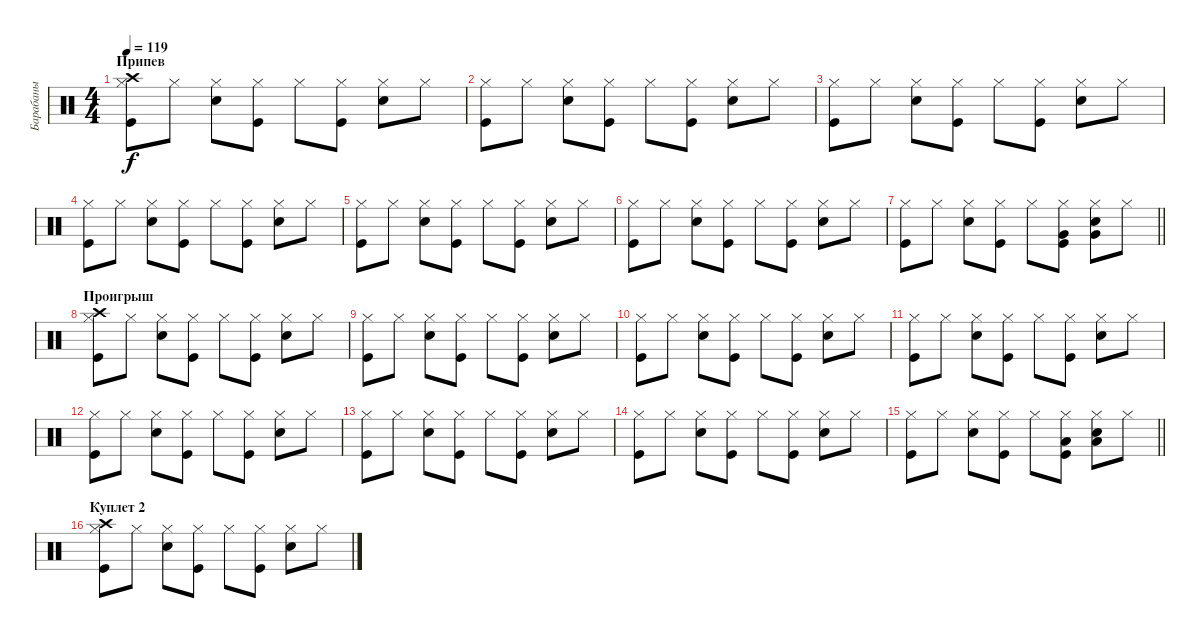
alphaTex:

\track ("Барабаны" "Барабаны") {instrument percussion}
\staff {score}
\articulation defaults
\ts (4 4)
\section ("" "Припев")
\tempo 119
\clef neutral
\ks c
("Kick (hit)" "Hi-Hat (closed)" "Crash high (hit)").8{dy f} "Hi-Hat (closed)".8 ("Snare (hit) 2" "Hi-Hat (closed)").8 ("Kick (hit)" "Hi-Hat (closed)").8 "Hi-Hat (closed)".8 ("Kick (hit)" "Hi-Hat (closed)").8 ("Snare (hit) 2" "Hi-Hat (closed)").8 "Hi-Hat (closed)".8 |
("Kick (hit)" "Hi-Hat (closed)").8 "Hi-Hat (closed)".8 ("Snare (hit) 2" "Hi-Hat (closed)").8 ("Kick (hit)" "Hi-Hat (closed)").8 "Hi-Hat (closed)".8 ("Kick (hit)" "Hi-Hat (closed)").8 ("Snare (hit) 2" "Hi-Hat (closed)").8 "Hi-Hat (closed)".8 |
("Kick (hit)" "Hi-Hat (closed)").8 "Hi-Hat (closed)".8 ("Snare (hit) 2" "Hi-Hat (closed)").8 ("Kick (hit)" "Hi-Hat (closed)").8 "Hi-Hat (closed)".8 ("Kick (hit)" "Hi-Hat (closed)").8 ("Snare (hit) 2" "Hi-Hat (closed)").8 "Hi-Hat (closed)".8 |
("Kick (hit)" "Hi-Hat (closed)").8 "Hi-Hat (closed)".8 ("Snare (hit) 2" "Hi-Hat (closed)").8 ("Kick (hit)" "Hi-Hat (closed)").8 "Hi-Hat (closed)".8 ("Kick (hit)" "Hi-Hat (closed)").8 ("Snare (hit) 2" "Hi-Hat (closed)").8 "Hi-Hat (closed)".8 |
("Kick (hit)" "Hi-Hat (closed)").8 "Hi-Hat (closed)".8 ("Snare (hit) 2" "Hi-Hat (closed)").8 ("Kick (hit)" "Hi-Hat (closed)").8 "Hi-Hat (closed)".8 ("Kick (hit)" "Hi-Hat (closed)").8 ("Snare (hit) 2" "Hi-Hat (closed)").8 "Hi-Hat (closed)".8 |
("Kick (hit)" "Hi-Hat (closed)").8 "Hi-Hat (closed)".8 ("Snare (hit) 2" "Hi-Hat (closed)").8 ("Kick (hit)" "Hi-Hat (closed)").8 "Hi-Hat (closed)".8 ("Kick (hit)" "Hi-Hat (closed)").8 ("Snare (hit) 2" "Hi-Hat (closed)").8 "Hi-Hat (closed)".8 |
\barLineRight lightlight
("Kick (hit)" "Hi-Hat (closed)").8 "Hi-Hat (closed)".8 ("Snare (hit) 2" "Hi-Hat (closed)").8 ("Kick (hit)" "Hi-Hat (closed)").8 "Hi-Hat (closed)".8 ("Kick (hit)" "Hi-Hat (closed)" "Very Low Tom (hit)").8 ("Snare (hit) 2" "Hi-Hat (closed)" "Very Low Tom (hit)").8 "Hi-Hat (closed)".8 |
\section ("" "Проигрыш")
("Kick (hit)" "Hi-Hat (closed)" "Crash high (hit)").8 "Hi-Hat (closed)".8 ("Snare (hit) 2" "Hi-Hat (closed)").8 ("Kick (hit)" "Hi-Hat (closed)").8 "Hi-Hat (closed)".8 ("Kick (hit)" "Hi-Hat (closed)").8 ("Snare (hit) 2" "Hi-Hat (closed)").8 "Hi-Hat (closed)".8 |
("Kick (hit)" "Hi-Hat (closed)").8 "Hi-Hat (closed)".8 ("Snare (hit) 2" "Hi-Hat (closed)").8 ("Kick (hit)" "Hi-Hat (closed)").8 "Hi-Hat (closed)".8 ("Kick (hit)" "Hi-Hat (closed)").8 ("Snare (hit) 2" "Hi-Hat (closed)").8 "Hi-Hat (closed)".8 |
("Kick (hit)" "Hi-Hat (closed)").8 "Hi-Hat (closed)".8 ("Snare (hit) 2" "Hi-Hat (closed)").8 ("Kick (hit)" "Hi-Hat (closed)").8 "Hi-Hat (closed)".8 ("Kick (hit)" "Hi-Hat (closed)").8 ("Snare (hit) 2" "Hi-Hat (closed)").8 "Hi-Hat (closed)".8 |
("Kick (hit)" "Hi-Hat (closed)").8 "Hi-Hat (closed)".8 ("Snare (hit) 2" "Hi-Hat (closed)").8 ("Kick (hit)" "Hi-Hat (closed)").8 "Hi-Hat (closed)".8 ("Kick (hit)" "Hi-Hat (closed)").8 ("Snare (hit) 2" "Hi-Hat (closed)").8 "Hi-Hat (closed)".8 |
("Kick (hit)" "Hi-Hat (closed)").8 "Hi-Hat (closed)".8 ("Snare (hit) 2" "Hi-Hat (closed)").8 ("Kick (hit)" "Hi-Hat (closed)").8 "Hi-Hat (closed)".8 ("Kick (hit)" "Hi-Hat (closed)").8 ("Snare (hit) 2" "Hi-Hat (closed)").8 "Hi-Hat (closed)".8 |
("Kick (hit)" "Hi-Hat (closed)").8 "Hi-Hat (closed)".8 ("Snare (hit) 2" "Hi-Hat (closed)").8 ("Kick (hit)" "Hi-Hat (closed)").8 "Hi-Hat (closed)".8 ("Kick (hit)" "Hi-Hat (closed)").8 ("Snare (hit) 2" "Hi-Hat (closed)").8 "Hi-Hat (closed)".8 |
("Kick (hit)" "Hi-Hat (closed)").8 "Hi-Hat (closed)".8 ("Snare (hit) 2" "Hi-Hat (closed)").8 ("Kick (hit)" "Hi-Hat (closed)").8 "Hi-Hat (closed)".8 ("Kick (hit)" "Hi-Hat (closed)").8 ("Snare (hit) 2" "Hi-Hat (closed)").8 "Hi-Hat (closed)".8 |
\barLineRight lightlight
("Kick (hit)" "Hi-Hat (closed)").8 "Hi-Hat (closed)".8 ("Snare (hit) 2" "Hi-Hat (closed)").8 ("Kick (hit)" "Hi-Hat (closed)").8 "Hi-Hat (closed)".8 ("Kick (hit)" "Hi-Hat (closed)" "Low Tom (hit)").8 ("Snare (hit) 2" "Hi-Hat (closed)" "Low Tom (hit)").8 "Hi-Hat (closed)".8 |
\section ("" "Куплет 2")
("Kick (hit)" "Hi-Hat (closed)" "Crash high (hit)").8 "Hi-Hat (closed)".8 ("Snare (hit) 2" "Hi-Hat (closed)").8 ("Kick (hit)" "Hi-Hat (closed)").8 "Hi-Hat (closed)".8 ("Kick (hit)" "Hi-Hat (closed)").8 ("Snare (hit) 2" "Hi-Hat (closed)").8 "Hi-Hat (closed)".8
